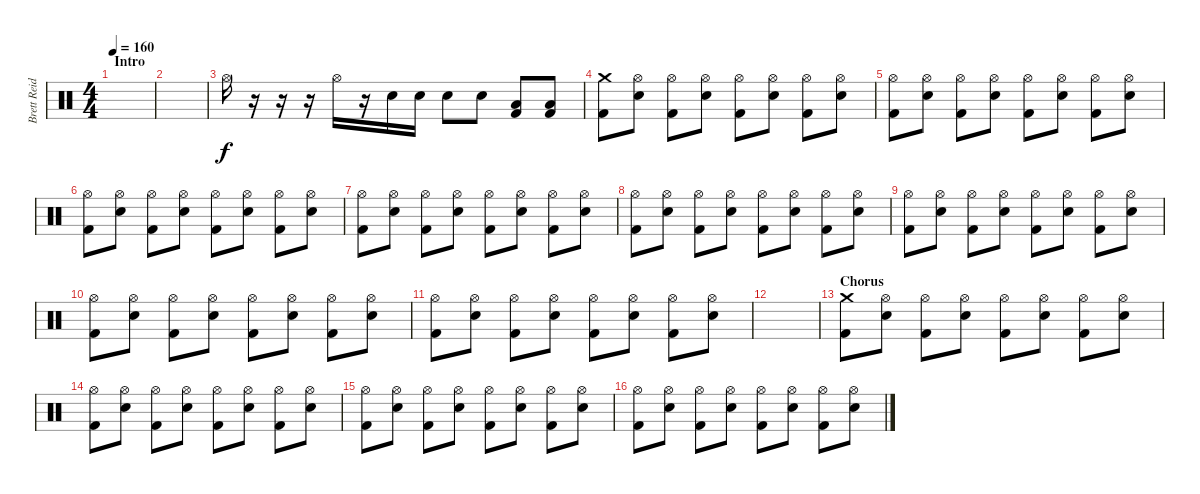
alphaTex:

\track ("Brett Reid" "Brett Reid") {instrument percussion}
\staff {score}
\articulation defaults
\ts (4 4)
\section ("" "Intro")
\tempo 160
\clef neutral
\ks c
|
|
"Hi-Hat (open)".16 r.16 r.16 r.16 "Hi-Hat (open)".16 r.16 "Electric Snare (hit)".16 "Electric Snare (hit)".16 "Electric Snare (hit)".8 "Electric Snare (hit)".8 ("Low Floor Tom (hit)" "Kick (hit) 2").8 ("Low Floor Tom (hit)" "Kick (hit) 2").8 |
("Crash medium (hit)" "Kick (hit) 2").8 ("Hi-Hat (open)" "Electric Snare (hit)").8 ("Hi-Hat (open)" "Kick (hit) 2").8 ("Hi-Hat (open)" "Electric Snare (hit)").8 ("Hi-Hat (open)" "Kick (hit) 2").8 ("Hi-Hat (open)" "Electric Snare (hit)").8 ("Hi-Hat (open)" "Kick (hit) 2").8 ("Hi-Hat (open)" "Electric Snare (hit)").8 |
("Hi-Hat (open)" "Kick (hit) 2").8 ("Hi-Hat (open)" "Electric Snare (hit)").8 ("Hi-Hat (open)" "Kick (hit) 2").8 ("Hi-Hat (open)" "Electric Snare (hit)").8 ("Hi-Hat (open)" "Kick (hit) 2").8 ("Hi-Hat (open)" "Electric Snare (hit)").8 ("Hi-Hat (open)" "Kick (hit) 2").8 ("Hi-Hat (open)" "Electric Snare (hit)").8 |
("Hi-Hat (open)" "Kick (hit) 2").8 ("Hi-Hat (open)" "Electric Snare (hit)").8 ("Hi-Hat (open)" "Kick (hit) 2").8 ("Hi-Hat (open)" "Electric Snare (hit)").8 ("Hi-Hat (open)" "Kick (hit) 2").8 ("Hi-Hat (open)" "Electric Snare (hit)").8 ("Hi-Hat (open)" "Kick (hit) 2").8 ("Hi-Hat (open)" "Electric Snare (hit)").8 |
("Hi-Hat (open)" "Kick (hit) 2").8 ("Hi-Hat (open)" "Electric Snare (hit)").8 ("Hi-Hat (open)" "Kick (hit) 2").8 ("Hi-Hat (open)" "Electric Snare (hit)").8 ("Hi-Hat (open)" "Kick (hit) 2").8 ("Hi-Hat (open)" "Electric Snare (hit)").8 ("Hi-Hat (open)" "Kick (hit) 2").8 ("Hi-Hat (open)" "Electric Snare (hit)").8 |
("Hi-Hat (open)" "Kick (hit) 2").8 ("Hi-Hat (open)" "Electric Snare (hit)").8 ("Hi-Hat (open)" "Kick (hit) 2").8 ("Hi-Hat (open)" "Electric Snare (hit)").8 ("Hi-Hat (open)" "Kick (hit) 2").8 ("Hi-Hat (open)" "Electric Snare (hit)").8 ("Hi-Hat (open)" "Kick (hit) 2").8 ("Hi-Hat (open)" "Electric Snare (hit)").8 |
("Hi-Hat (open)" "Kick (hit) 2").8 ("Hi-Hat (open)" "Electric Snare (hit)").8 ("Hi-Hat (open)" "Kick (hit) 2").8 ("Hi-Hat (open)" "Electric Snare (hit)").8 ("Hi-Hat (open)" "Kick (hit) 2").8 ("Hi-Hat (open)" "Electric Snare (hit)").8 ("Hi-Hat (open)" "Kick (hit) 2").8 ("Hi-Hat (open)" "Electric Snare (hit)").8 |
("Hi-Hat (open)" "Kick (hit) 2").8 ("Hi-Hat (open)" "Electric Snare (hit)").8 ("Hi-Hat (open)" "Kick (hit) 2").8 ("Hi-Hat (open)" "Electric Snare (hit)").8 ("Hi-Hat (open)" "Kick (hit) 2").8 ("Hi-Hat (open)" "Electric Snare (hit)").8 ("Hi-Hat (open)" "Kick (hit) 2").8 ("Hi-Hat (open)" "Electric Snare (hit)").8 |
("Hi-Hat (open)" "Kick (hit) 2").8 ("Hi-Hat (open)" "Electric Snare (hit)").8 ("Hi-Hat (open)" "Kick (hit) 2").8 ("Hi-Hat (open)" "Electric Snare (hit)").8 ("Hi-Hat (open)" "Kick (hit) 2").8 ("Hi-Hat (open)" "Electric Snare (hit)").8 ("Hi-Hat (open)" "Kick (hit) 2").8 ("Hi-Hat (open)" "Electric Snare (hit)").8 |
|
\section ("" "Chorus")
("Crash medium (hit)" "Kick (hit) 2").8 ("Hi-Hat (open)" "Electric Snare (hit)").8 ("Hi-Hat (open)" "Kick (hit) 2").8 ("Hi-Hat (open)" "Electric Snare (hit)").8 ("Hi-Hat (open)" "Kick (hit) 2").8 ("Hi-Hat (open)" "Electric Snare (hit)").8 ("Hi-Hat (open)" "Kick (hit) 2").8 ("Hi-Hat (open)" "Electric Snare (hit)").8 |
("Hi-Hat (open)" "Kick (hit) 2").8 ("Hi-Hat (open)" "Electric Snare (hit)").8 ("Hi-Hat (open)" "Kick (hit) 2").8 ("Hi-Hat (open)" "Electric Snare (hit)").8 ("Hi-Hat (open)" "Kick (hit) 2").8 ("Hi-Hat (open)" "Electric Snare (hit)").8 ("Hi-Hat (open)" "Kick (hit) 2").8 ("Hi-Hat (open)" "Electric Snare (hit)").8 |
("Hi-Hat (open)" "Kick (hit) 2").8 ("Hi-Hat (open)" "Electric Snare (hit)").8 ("Hi-Hat (open)" "Kick (hit) 2").8 ("Hi-Hat (open)" "Electric Snare (hit)").8 ("Hi-Hat (open)" "Kick (hit) 2").8 ("Hi-Hat (open)" "Electric Snare (hit)").8 ("Hi-Hat (open)" "Kick (hit) 2").8 ("Hi-Hat (open)" "Electric Snare (hit)").8 |
("Hi-Hat (open)" "Kick (hit) 2").8 ("Hi-Hat (open)" "Electric Snare (hit)").8 ("Hi-Hat (open)" "Kick (hit) 2").8 ("Hi-Hat (open)" "Electric Snare (hit)").8 ("Hi-Hat (open)" "Kick (hit) 2").8 ("Hi-Hat (open)" "Electric Snare (hit)").8 ("Hi-Hat (open)" "Kick (hit) 2").8 ("Hi-Hat (open)" "Electric Snare (hit)").8
